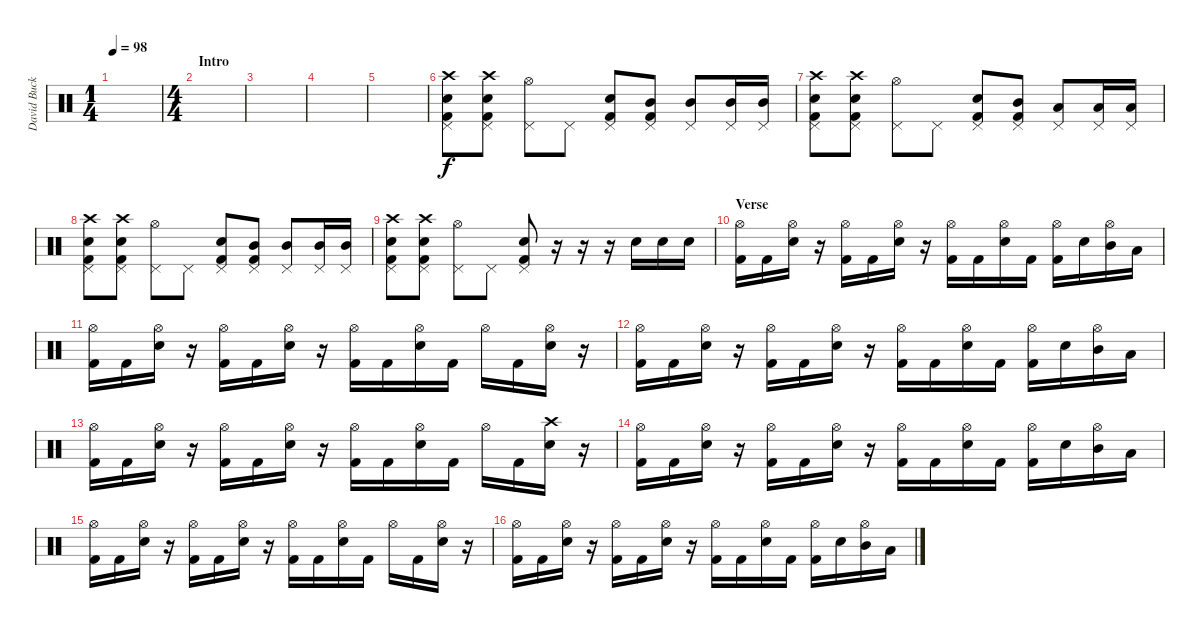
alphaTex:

\track ("David Buckner" "David Buck") {instrument percussion}
\staff {score}
\articulation defaults
\ts (1 4)
\tempo 98
\clef neutral
\ks c
|
\ts (4 4)
\section ("" "Intro")
|
|
|
|
("Crash high (hit)" "Snare (hit) 2" "Pedal Hi-Hat (hit)" "Kick (hit) 2").8 ("Crash high (hit)" "Snare (hit) 2" "Pedal Hi-Hat (hit)" "Kick (hit) 2").8 ("Hi-Hat (open)" "Pedal Hi-Hat (hit)").8 "Pedal Hi-Hat (hit)".8 ("Snare (hit) 2" "Pedal Hi-Hat (hit)" "Kick (hit) 2").8 ("Mid Tom (hit)" "Pedal Hi-Hat (hit)" "Kick (hit) 2").8 ("Mid Tom (hit)" "Pedal Hi-Hat (hit)").8 ("Mid Tom (hit)" "Pedal Hi-Hat (hit)").16 ("Mid Tom (hit)" "Pedal Hi-Hat (hit)").16 |
("Crash high (hit)" "Snare (hit) 2" "Pedal Hi-Hat (hit)" "Kick (hit) 2").8 ("Crash high (hit)" "Snare (hit) 2" "Pedal Hi-Hat (hit)" "Kick (hit) 2").8 ("Hi-Hat (open)" "Pedal Hi-Hat (hit)").8 "Pedal Hi-Hat (hit)".8 ("Snare (hit) 2" "Pedal Hi-Hat (hit)" "Kick (hit) 2").8 ("Mid Tom (hit)" "Pedal Hi-Hat (hit)" "Kick (hit) 2").8 ("Low Tom (hit)" "Pedal Hi-Hat (hit)").8 ("Low Tom (hit)" "Pedal Hi-Hat (hit)").16 ("Low Tom (hit)" "Pedal Hi-Hat (hit)").16 |
("Crash high (hit)" "Snare (hit) 2" "Pedal Hi-Hat (hit)" "Kick (hit) 2").8 ("Crash high (hit)" "Snare (hit) 2" "Pedal Hi-Hat (hit)" "Kick (hit) 2").8 ("Hi-Hat (open)" "Pedal Hi-Hat (hit)").8 "Pedal Hi-Hat (hit)".8 ("Snare (hit) 2" "Pedal Hi-Hat (hit)" "Kick (hit) 2").8 ("Mid Tom (hit)" "Pedal Hi-Hat (hit)" "Kick (hit) 2").8 ("Mid Tom (hit)" "Pedal Hi-Hat (hit)").8 ("Mid Tom (hit)" "Pedal Hi-Hat (hit)").16 ("Mid Tom (hit)" "Pedal Hi-Hat (hit)").16 |
("Crash high (hit)" "Snare (hit) 2" "Pedal Hi-Hat (hit)" "Kick (hit) 2").8 ("Crash high (hit)" "Snare (hit) 2" "Pedal Hi-Hat (hit)" "Kick (hit) 2").8 ("Hi-Hat (open)" "Pedal Hi-Hat (hit)").8 "Pedal Hi-Hat (hit)".8 ("Snare (hit) 2" "Pedal Hi-Hat (hit)" "Kick (hit) 2").8 r.16 r.16 r.16 "Snare (hit) 2".16 "Snare (hit) 2".16 "Snare (hit) 2".16 |
\section ("" "Verse")
("Hi-Hat (open)" "Kick (hit) 2").16 "Kick (hit) 2".16 ("Hi-Hat (open)" "Snare (hit) 2").16 r.16 ("Hi-Hat (open)" "Kick (hit) 2").16 "Kick (hit) 2".16 ("Hi-Hat (open)" "Snare (hit) 2").16 r.16 ("Hi-Hat (open)" "Kick (hit) 2").16 "Kick (hit) 2".16 ("Hi-Hat (open)" "Snare (hit) 2").16 "Kick (hit) 2".16 ("Hi-Hat (open)" "Kick (hit) 2").16 "Snare (hit) 2".16 ("Hi-Hat (open)" "Mid Tom (hit)").16 "Low Tom (hit)".16 |
("Hi-Hat (open)" "Kick (hit) 2").16 "Kick (hit) 2".16 ("Hi-Hat (open)" "Snare (hit) 2").16 r.16 ("Hi-Hat (open)" "Kick (hit) 2").16 "Kick (hit) 2".16 ("Hi-Hat (open)" "Snare (hit) 2").16 r.16 ("Hi-Hat (open)" "Kick (hit) 2").16 "Kick (hit) 2".16 ("Hi-Hat (open)" "Snare (hit) 2").16 "Kick (hit) 2".16 "Hi-Hat (open)".16 "Kick (hit) 2".16 ("Hi-Hat (open)" "Snare (hit) 2").16 r.16 |
("Hi-Hat (open)" "Kick (hit) 2").16 "Kick (hit) 2".16 ("Hi-Hat (open)" "Snare (hit) 2").16 r.16 ("Hi-Hat (open)" "Kick (hit) 2").16 "Kick (hit) 2".16 ("Hi-Hat (open)" "Snare (hit) 2").16 r.16 ("Hi-Hat (open)" "Kick (hit) 2").16 "Kick (hit) 2".16 ("Hi-Hat (open)" "Snare (hit) 2").16 "Kick (hit) 2".16 ("Hi-Hat (open)" "Kick (hit) 2").16 "Snare (hit) 2".16 ("Hi-Hat (open)" "Mid Tom (hit)").16 "Low Tom (hit)".16 |
("Hi-Hat (open)" "Kick (hit) 2").16 "Kick (hit) 2".16 ("Hi-Hat (open)" "Snare (hit) 2").16 r.16 ("Hi-Hat (open)" "Kick (hit) 2").16 "Kick (hit) 2".16 ("Hi-Hat (open)" "Snare (hit) 2").16 r.16 ("Hi-Hat (open)" "Kick (hit) 2").16 "Kick (hit) 2".16 ("Hi-Hat (open)" "Snare (hit) 2").16 "Kick (hit) 2".16 "Hi-Hat (open)".16 "Kick (hit) 2".16 ("Crash high (hit)" "Snare (hit) 2").16 r.16 |
("Hi-Hat (open)" "Kick (hit) 2").16 "Kick (hit) 2".16 ("Hi-Hat (open)" "Snare (hit) 2").16 r.16 ("Hi-Hat (open)" "Kick (hit) 2").16 "Kick (hit) 2".16 ("Hi-Hat (open)" "Snare (hit) 2").16 r.16 ("Hi-Hat (open)" "Kick (hit) 2").16 "Kick (hit) 2".16 ("Hi-Hat (open)" "Snare (hit) 2").16 "Kick (hit) 2".16 ("Hi-Hat (open)" "Kick (hit) 2").16 "Snare (hit) 2".16 ("Hi-Hat (open)" "Mid Tom (hit)").16 "Low Tom (hit)".16 |
("Hi-Hat (open)" "Kick (hit) 2").16 "Kick (hit) 2".16 ("Hi-Hat (open)" "Snare (hit) 2").16 r.16 ("Hi-Hat (open)" "Kick (hit) 2").16 "Kick (hit) 2".16 ("Hi-Hat (open)" "Snare (hit) 2").16 r.16 ("Hi-Hat (open)" "Kick (hit) 2").16 "Kick (hit) 2".16 ("Hi-Hat (open)" "Snare (hit) 2").16 "Kick (hit) 2".16 "Hi-Hat (open)".16 "Kick (hit) 2".16 ("Hi-Hat (open)" "Snare (hit) 2").16 r.16 |
("Hi-Hat (open)" "Kick (hit) 2").16 "Kick (hit) 2".16 ("Hi-Hat (open)" "Snare (hit) 2").16 r.16 ("Hi-Hat (open)" "Kick (hit) 2").16 "Kick (hit) 2".16 ("Hi-Hat (open)" "Snare (hit) 2").16 r.16 ("Hi-Hat (open)" "Kick (hit) 2").16 "Kick (hit) 2".16 ("Hi-Hat (open)" "Snare (hit) 2").16 "Kick (hit) 2".16 ("Hi-Hat (open)" "Kick (hit) 2").16 "Snare (hit) 2".16 ("Hi-Hat (open)" "Mid Tom (hit)").16 "Low Tom (hit)".16
